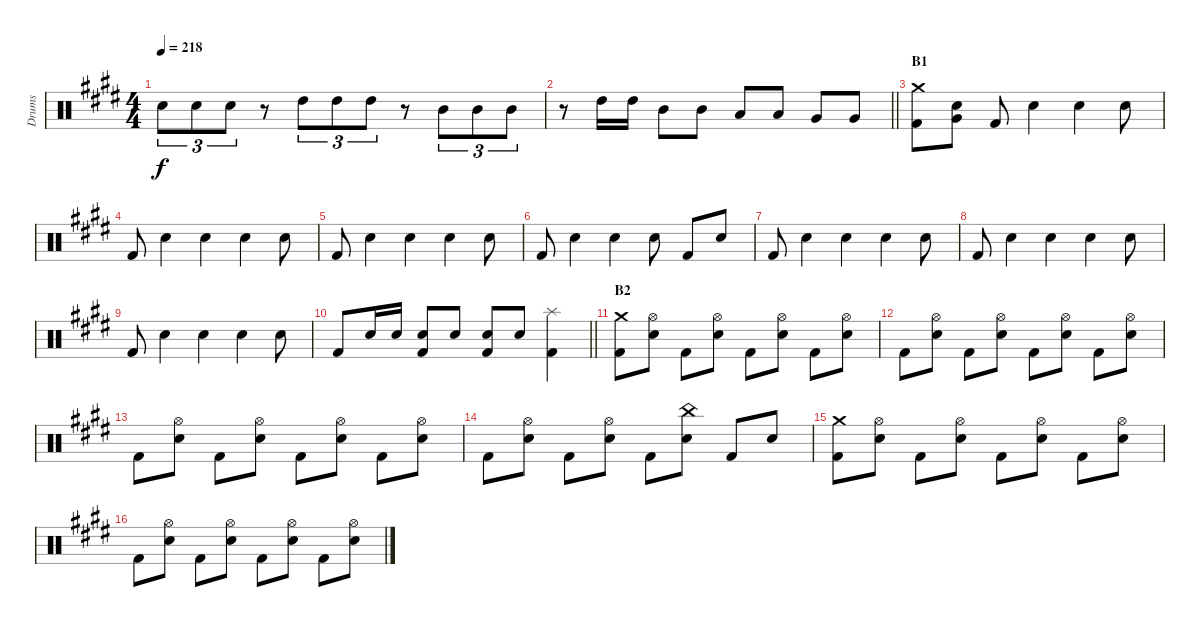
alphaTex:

\track ("Drums" "Drums") {instrument percussion}
\staff {score}
\articulation defaults
\ts (4 4)
\tempo 218
\clef neutral
\ks c#minor "Snare (hit) 2".8{tu (3 2) dy f} "Snare (hit) 2".8{tu (3 2)} "Snare (hit) 2".8{tu (3 2)}
r.8 "High Tom (hit)".8{tu (3 2)} "High Tom (hit)".8{tu (3 2)} "High Tom (hit)".8{tu (3 2)} r.8 "Mid Tom (hit)".8{tu (3 2)} "Mid Tom (hit)".8{tu (3 2)} "Mid Tom (hit)".8{tu (3 2)} |
\barLineRight lightlight
r.8 "High Tom (hit)".16 "High Tom (hit)".16 "Mid Tom (hit)".8 "Mid Tom (hit)".8 "Low Tom (hit)".8 "Low Tom (hit)".8 "Very Low Tom (hit)".8 "Very Low Tom (hit)".8 |
\section ("" "B1")
("Crash medium (hit)" "Kick (hit) 2").8 ("Snare (hit) 2" "Very Low Tom (hit)").8 "Kick (hit) 2".8 "Snare (hit) 2".4 "Snare (hit) 2".4 "Snare (hit) 2".8 |
"Kick (hit) 2".8 "Snare (hit) 2".4 "Snare (hit) 2".4 "Snare (hit) 2".4 "Snare (hit) 2".8 |
"Kick (hit) 2".8 "Snare (hit) 2".4 "Snare (hit) 2".4 "Snare (hit) 2".4 "Snare (hit) 2".8 |
"Kick (hit) 2".8 "Snare (hit) 2".4 "Snare (hit) 2".4 "Snare (hit) 2".8 "Kick (hit) 2".8 "Snare (hit) 2".8 |
"Kick (hit) 2".8 "Snare (hit) 2".4 "Snare (hit) 2".4 "Snare (hit) 2".4 "Snare (hit) 2".8 |
"Kick (hit) 2".8 "Snare (hit) 2".4 "Snare (hit) 2".4 "Snare (hit) 2".4 "Snare (hit) 2".8 |
"Kick (hit) 2".8 "Snare (hit) 2".4 "Snare (hit) 2".4 "Snare (hit) 2".4 "Snare (hit) 2".8 |
\barLineRight lightlight "Kick (hit) 2".8 "Snare (hit) 2".16 "Snare (hit) 2".16
("Snare (hit) 2" "Kick (hit) 2").8 "Snare (hit) 2".8 ("Snare (hit) 2" "Kick (hit) 2").8 "Snare (hit) 2".8 ("Splash (hit)" "Kick (hit) 2").4 |
\section ("" "B2")
("Crash medium (hit)" "Kick (hit) 2").8 ("Hi-Hat (open)" "Snare (hit) 2").8 "Kick (hit) 2".8 ("Hi-Hat (open)" "Snare (hit) 2").8 "Kick (hit) 2".8 ("Hi-Hat (open)" "Snare (hit) 2").8 "Kick (hit) 2".8 ("Hi-Hat (open)" "Snare (hit) 2").8 |
"Kick (hit) 2".8 ("Hi-Hat (open)" "Snare (hit) 2").8 "Kick (hit) 2".8 ("Hi-Hat (open)" "Snare (hit) 2").8 "Kick (hit) 2".8 ("Hi-Hat (open)" "Snare (hit) 2").8 "Kick (hit) 2".8 ("Hi-Hat (open)" "Snare (hit) 2").8 |
"Kick (hit) 2".8 ("Hi-Hat (open)" "Snare (hit) 2").8 "Kick (hit) 2".8 ("Hi-Hat (open)" "Snare (hit) 2").8 "Kick (hit) 2".8 ("Hi-Hat (open)" "Snare (hit) 2").8 "Kick (hit) 2".8 ("Hi-Hat (open)" "Snare (hit) 2").8 |
"Kick (hit) 2".8 ("Hi-Hat (open)" "Snare (hit) 2").8 "Kick (hit) 2".8 ("Hi-Hat (open)" "Snare (hit) 2").8 "Kick (hit) 2".8 ("China (hit)" "Snare (hit) 2").8 "Kick (hit) 2".8 "Snare (hit) 2".8 |
("Crash medium (hit)" "Kick (hit) 2").8 ("Hi-Hat (open)" "Snare (hit) 2").8 "Kick (hit) 2".8 ("Hi-Hat (open)" "Snare (hit) 2").8 "Kick (hit) 2".8 ("Hi-Hat (open)" "Snare (hit) 2").8 "Kick (hit) 2".8 ("Hi-Hat (open)" "Snare (hit) 2").8 |
"Kick (hit) 2".8 ("Hi-Hat (open)" "Snare (hit) 2").8 "Kick (hit) 2".8 ("Hi-Hat (open)" "Snare (hit) 2").8 "Kick (hit) 2".8 ("Hi-Hat (open)" "Snare (hit) 2").8 "Kick (hit) 2".8 ("Hi-Hat (open)" "Snare (hit) 2").8
